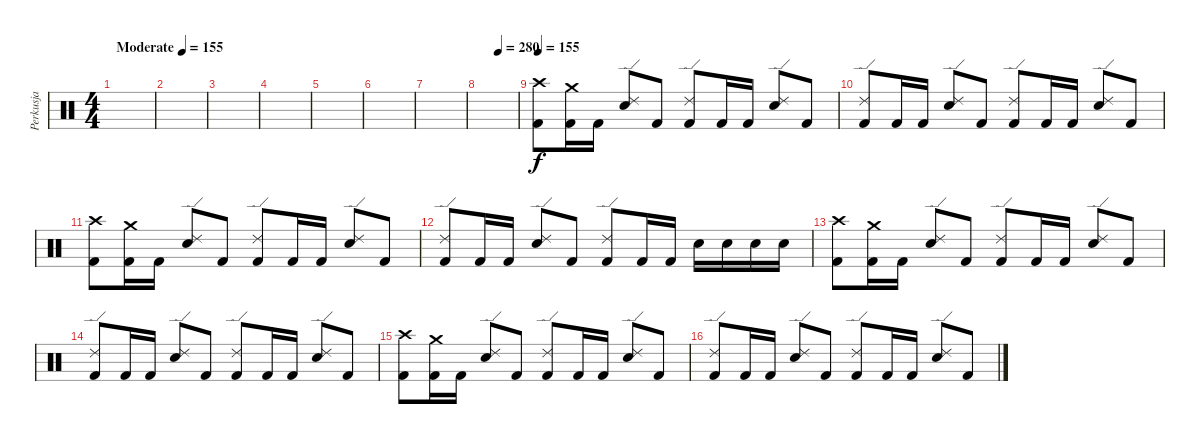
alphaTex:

\track ("Perkusja" "Perkusja") {instrument percussion}
\staff {score}
\articulation defaults
\ts (4 4)
\tempo (155 "Moderate")
\clef neutral
\ks c
|
|
|
|
|
|
|
\tempo (280 0.5)
|
\tempo 155
("Crash high (hit)" "Kick (hit) 2").8 ("Crash medium (hit)" "Kick (hit) 2").16 "Kick (hit) 2".16 ("Ride (edge) 2" "Snare (hit) 2").8 "Kick (hit) 2".8 ("Ride (edge) 2" "Kick (hit) 2").8 "Kick (hit) 2".16 "Kick (hit) 2".16 ("Ride (edge) 2" "Snare (hit) 2").8 "Kick (hit) 2".8 |
("Ride (edge) 2" "Kick (hit) 2").8 "Kick (hit) 2".16 "Kick (hit) 2".16 ("Ride (edge) 2" "Snare (hit) 2").8 "Kick (hit) 2".8 ("Ride (edge) 2" "Kick (hit) 2").8 "Kick (hit) 2".16 "Kick (hit) 2".16 ("Ride (edge) 2" "Snare (hit) 2").8 "Kick (hit) 2".8 |
("Crash high (hit)" "Kick (hit) 2").8 ("Crash medium (hit)" "Kick (hit) 2").16 "Kick (hit) 2".16 ("Ride (edge) 2" "Snare (hit) 2").8 "Kick (hit) 2".8 ("Ride (edge) 2" "Kick (hit) 2").8 "Kick (hit) 2".16 "Kick (hit) 2".16 ("Ride (edge) 2" "Snare (hit) 2").8 "Kick (hit) 2".8 |
("Ride (edge) 2" "Kick (hit) 2").8 "Kick (hit) 2".16 "Kick (hit) 2".16 ("Ride (edge) 2" "Snare (hit) 2").8 "Kick (hit) 2".8 ("Ride (edge) 2" "Kick (hit) 2").8 "Kick (hit) 2".16 "Kick (hit) 2".16 "Snare (hit) 2".16 "Snare (hit) 2".16 "Snare (hit) 2".16 "Snare (hit) 2".16 |
("Crash high (hit)" "Kick (hit) 2").8 ("Crash medium (hit)" "Kick (hit) 2").16 "Kick (hit) 2".16 ("Ride (edge) 2" "Snare (hit) 2").8 "Kick (hit) 2".8 ("Ride (edge) 2" "Kick (hit) 2").8 "Kick (hit) 2".16 "Kick (hit) 2".16 ("Ride (edge) 2" "Snare (hit) 2").8 "Kick (hit) 2".8 |
("Ride (edge) 2" "Kick (hit) 2").8 "Kick (hit) 2".16 "Kick (hit) 2".16 ("Ride (edge) 2" "Snare (hit) 2").8 "Kick (hit) 2".8 ("Ride (edge) 2" "Kick (hit) 2").8 "Kick (hit) 2".16 "Kick (hit) 2".16 ("Ride (edge) 2" "Snare (hit) 2").8 "Kick (hit) 2".8 |
("Crash high (hit)" "Kick (hit) 2").8 ("Crash medium (hit)" "Kick (hit) 2").16 "Kick (hit) 2".16 ("Ride (edge) 2" "Snare (hit) 2").8 "Kick (hit) 2".8 ("Ride (edge) 2" "Kick (hit) 2").8 "Kick (hit) 2".16 "Kick (hit) 2".16 ("Ride (edge) 2" "Snare (hit) 2").8 "Kick (hit) 2".8 |
("Ride (edge) 2" "Kick (hit) 2").8 "Kick (hit) 2".16 "Kick (hit) 2".16 ("Ride (edge) 2" "Snare (hit) 2").8 "Kick (hit) 2".8 ("Ride (edge) 2" "Kick (hit) 2").8 "Kick (hit) 2".16 "Kick (hit) 2".16 ("Ride (edge) 2" "Snare (hit) 2").8 "Kick (hit) 2".8
